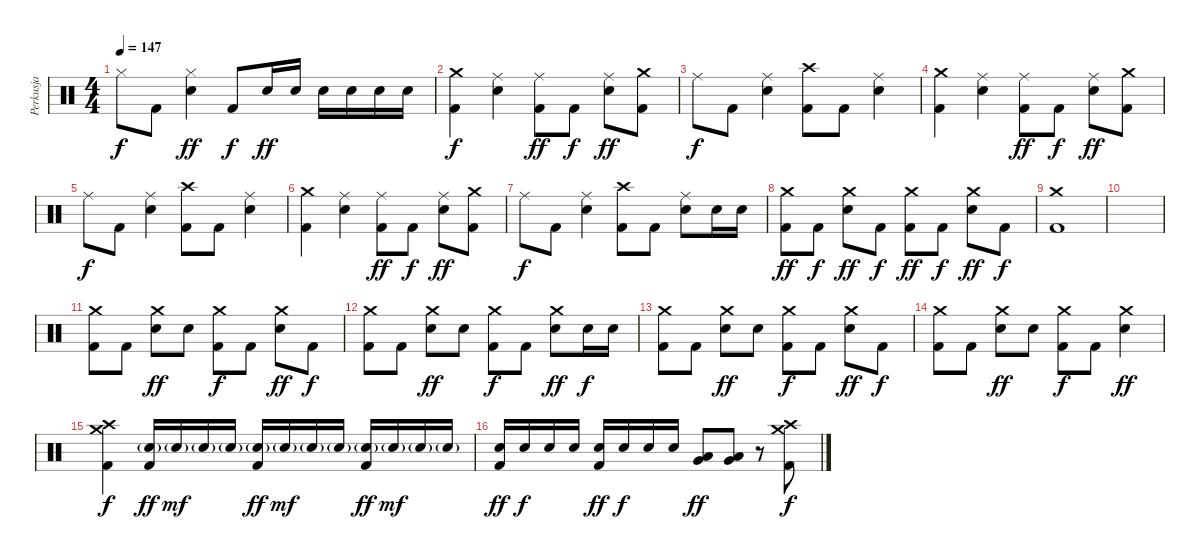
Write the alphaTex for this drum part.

\track ("Perkusja" "Perkusja") {instrument percussion}
\staff {score}
\articulation defaults
\ts (4 4)
\tempo 147
\clef neutral
\ks c "Hi-Hat (closed)".8{dy f} "Kick (hit) 2".8
("Hi-Hat (closed)" "Electric Snare (hit)").4{dy ff} "Kick (hit) 2".8{dy f} "Electric Snare (hit)".16{dy ff} "Electric Snare (hit)".16 "Electric Snare (hit)".16 "Electric Snare (hit)".16 "Electric Snare (hit)".16 "Electric Snare (hit)".16 |
("Crash medium (hit)" "Kick (hit) 2").4{dy f} ("Ride (middle)" "Electric Snare (hit)").4 ("Ride (middle)" "Kick (hit) 2").8{dy ff} "Kick (hit) 2".8{dy f} ("Ride (middle)" "Electric Snare (hit)").8{dy ff} ("Crash medium (hit)" "Kick (hit) 2").8 |
"Ride (middle)".8{dy f} "Kick (hit) 2".8 ("Ride (middle)" "Electric Snare (hit)").4 ("Crash high (hit)" "Kick (hit) 2").8 "Kick (hit) 2".8 ("Ride (middle)" "Electric Snare (hit)").4 |
("Crash medium (hit)" "Kick (hit) 2").4 ("Ride (middle)" "Electric Snare (hit)").4 ("Ride (middle)" "Kick (hit) 2").8{dy ff} "Kick (hit) 2".8{dy f} ("Ride (middle)" "Electric Snare (hit)").8{dy ff} ("Crash medium (hit)" "Kick (hit) 2").8 |
"Ride (middle)".8{dy f} "Kick (hit) 2".8 ("Ride (middle)" "Electric Snare (hit)").4 ("Crash high (hit)" "Kick (hit) 2").8 "Kick (hit) 2".8 ("Ride (middle)" "Electric Snare (hit)").4 |
("Crash medium (hit)" "Kick (hit) 2").4 ("Ride (middle)" "Electric Snare (hit)").4 ("Ride (middle)" "Kick (hit) 2").8{dy ff} "Kick (hit) 2".8{dy f} ("Ride (middle)" "Electric Snare (hit)").8{dy ff} ("Crash medium (hit)" "Kick (hit) 2").8 |
"Ride (middle)".8{dy f} "Kick (hit) 2".8 ("Ride (middle)" "Electric Snare (hit)").4 ("Crash high (hit)" "Kick (hit) 2").8 "Kick (hit) 2".8 ("Ride (middle)" "Electric Snare (hit)").8 "Electric Snare (hit)".16 "Electric Snare (hit)".16 |
("Crash medium (hit)" "Kick (hit) 2").8{dy ff} "Kick (hit) 2".8{dy f} ("Crash medium (hit)" "Electric Snare (hit)").8{dy ff} "Kick (hit) 2".8{dy f} ("Crash medium (hit)" "Kick (hit) 2").8{dy ff} "Kick (hit) 2".8{dy f} ("Crash medium (hit)" "Electric Snare (hit)").8{dy ff} "Kick (hit) 2".8{dy f} |
("Crash medium (hit)" "Kick (hit) 2").1 |
|
("Crash medium (hit)" "Kick (hit) 2").8 "Kick (hit) 2".8 ("Crash medium (hit)" "Electric Snare (hit)").8{dy ff} "Electric Snare (hit)".8 ("Crash medium (hit)" "Kick (hit) 2").8{dy f} "Kick (hit) 2".8 ("Crash medium (hit)" "Electric Snare (hit)").8{dy ff} "Kick (hit) 2".8{dy f} |
("Crash medium (hit)" "Kick (hit) 2").8 "Kick (hit) 2".8 ("Crash medium (hit)" "Electric Snare (hit)").8{dy ff} "Electric Snare (hit)".8 ("Crash medium (hit)" "Kick (hit) 2").8{dy f} "Kick (hit) 2".8 ("Crash medium (hit)" "Electric Snare (hit)").8{dy ff} "Electric Snare (hit)".16{dy f} "Electric Snare (hit)".16 |
("Crash medium (hit)" "Kick (hit) 2").8 "Kick (hit) 2".8 ("Crash medium (hit)" "Electric Snare (hit)").8{dy ff} "Electric Snare (hit)".8 ("Crash medium (hit)" "Kick (hit) 2").8{dy f} "Kick (hit) 2".8 ("Crash medium (hit)" "Electric Snare (hit)").8{dy ff} "Kick (hit) 2".8{dy f} |
("Crash medium (hit)" "Kick (hit) 2").8 "Kick (hit) 2".8 ("Crash medium (hit)" "Electric Snare (hit)").8{dy ff} "Electric Snare (hit)".8 ("Crash medium (hit)" "Kick (hit) 2").8{dy f} "Kick (hit) 2".8 ("Crash medium (hit)" "Electric Snare (hit)").4{dy ff} |
("Crash medium (hit)" "Crash high (hit)" "Kick (hit) 2").4{dy f} ("Electric Snare (hit)"{g} "Kick (hit) 2").16{dy ff} "Electric Snare (hit)"{g}.16{dy mf} "Electric Snare (hit)"{g}.16 "Electric Snare (hit)"{g}.16 ("Electric Snare (hit)"{g} "Kick (hit) 2").16{dy ff} "Electric Snare (hit)"{g}.16{dy mf} "Electric Snare (hit)"{g}.16 "Electric Snare (hit)"{g}.16 ("Electric Snare (hit)"{g} "Kick (hit) 2").16{dy ff} "Electric Snare (hit)"{g}.16{dy mf} "Electric Snare (hit)"{g}.16 "Electric Snare (hit)"{g}.16 |
("Electric Snare (hit)" "Kick (hit) 2").16{dy ff} "Electric Snare (hit)".16{dy f} "Electric Snare (hit)".16 "Electric Snare (hit)".16 ("Electric Snare (hit)" "Kick (hit) 2").16{dy ff} "Electric Snare (hit)".16{dy f} "Electric Snare (hit)".16 "Electric Snare (hit)".16 ("Very Low Tom (hit)" "Low Floor Tom (hit)").8{dy ff} ("Very Low Tom (hit)" "Low Floor Tom (hit)").8 r.8 ("Crash medium (hit)" "Crash high (hit)" "Kick (hit) 2").8{dy f}
